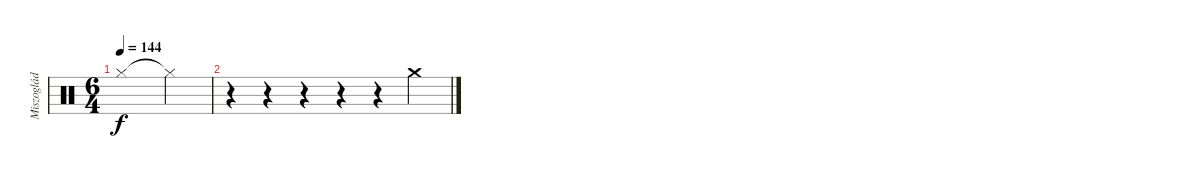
\track ("Miszoglád Henrik - Dob" "Miszoglád ") {instrument percussion}
\staff {score}
\articulation defaults
\ts (6 4)
\tempo 144
\clef neutral
\ks c "Hi-Hat (closed)".1{dy f} "Hi-Hat (closed)"{t}.2
|
r.4 r.4 r.4 r.4 r.4 "Crash medium (hit)".4
